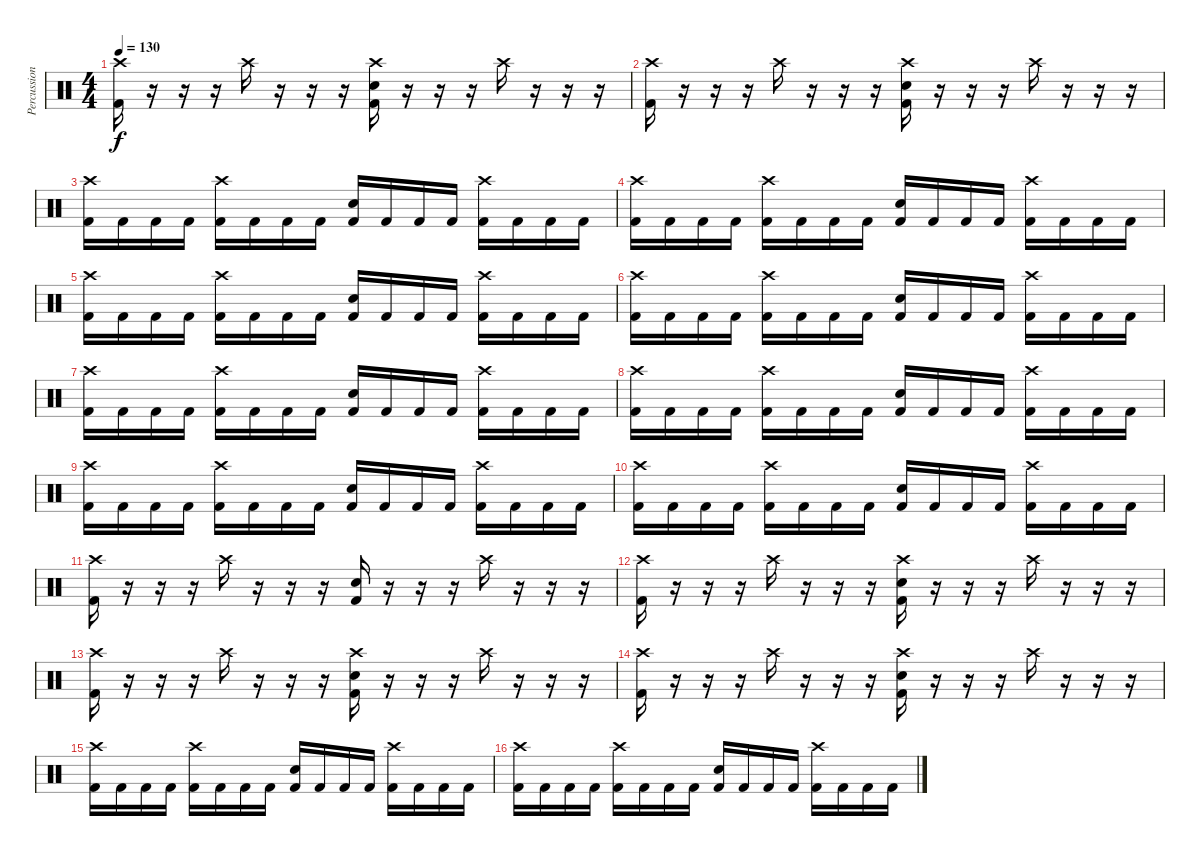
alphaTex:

\track ("Percussion" "Percussion") {instrument percussion}
\staff {score}
\articulation defaults
\ts (4 4)
\tempo 130
\clef neutral
\ks c
("Crash high (hit)" "Kick (hit) 2").16{dy f} r.16 r.16 r.16 "Crash high (hit)".16 r.16 r.16 r.16 ("Crash high (hit)" "Electric Snare (hit)" "Kick (hit) 2").16 r.16 r.16 r.16 "Crash high (hit)".16 r.16 r.16 r.16 |
("Crash high (hit)" "Kick (hit) 2").16 r.16 r.16 r.16 "Crash high (hit)".16 r.16 r.16 r.16 ("Crash high (hit)" "Electric Snare (hit)" "Kick (hit) 2").16 r.16 r.16 r.16 "Crash high (hit)".16 r.16 r.16 r.16 |
("Crash high (hit)" "Kick (hit) 2").16 "Kick (hit) 2".16 "Kick (hit) 2".16 "Kick (hit) 2".16 ("Crash high (hit)" "Kick (hit) 2").16 "Kick (hit) 2".16 "Kick (hit) 2".16 "Kick (hit) 2".16 ("Electric Snare (hit)" "Kick (hit) 2").16 "Kick (hit) 2".16 "Kick (hit) 2".16 "Kick (hit) 2".16 ("Crash high (hit)" "Kick (hit) 2").16 "Kick (hit) 2".16 "Kick (hit) 2".16 "Kick (hit) 2".16 |
("Crash high (hit)" "Kick (hit) 2").16 "Kick (hit) 2".16 "Kick (hit) 2".16 "Kick (hit) 2".16 ("Crash high (hit)" "Kick (hit) 2").16 "Kick (hit) 2".16 "Kick (hit) 2".16 "Kick (hit) 2".16 ("Electric Snare (hit)" "Kick (hit) 2").16 "Kick (hit) 2".16 "Kick (hit) 2".16 "Kick (hit) 2".16 ("Crash high (hit)" "Kick (hit) 2").16 "Kick (hit) 2".16 "Kick (hit) 2".16 "Kick (hit) 2".16 |
("Crash high (hit)" "Kick (hit) 2").16 "Kick (hit) 2".16 "Kick (hit) 2".16 "Kick (hit) 2".16 ("Crash high (hit)" "Kick (hit) 2").16 "Kick (hit) 2".16 "Kick (hit) 2".16 "Kick (hit) 2".16 ("Electric Snare (hit)" "Kick (hit) 2").16 "Kick (hit) 2".16 "Kick (hit) 2".16 "Kick (hit) 2".16 ("Crash high (hit)" "Kick (hit) 2").16 "Kick (hit) 2".16 "Kick (hit) 2".16 "Kick (hit) 2".16 |
("Crash high (hit)" "Kick (hit) 2").16 "Kick (hit) 2".16 "Kick (hit) 2".16 "Kick (hit) 2".16 ("Crash high (hit)" "Kick (hit) 2").16 "Kick (hit) 2".16 "Kick (hit) 2".16 "Kick (hit) 2".16 ("Electric Snare (hit)" "Kick (hit) 2").16 "Kick (hit) 2".16 "Kick (hit) 2".16 "Kick (hit) 2".16 ("Crash high (hit)" "Kick (hit) 2").16 "Kick (hit) 2".16 "Kick (hit) 2".16 "Kick (hit) 2".16 |
("Crash high (hit)" "Kick (hit) 2").16 "Kick (hit) 2".16 "Kick (hit) 2".16 "Kick (hit) 2".16 ("Crash high (hit)" "Kick (hit) 2").16 "Kick (hit) 2".16 "Kick (hit) 2".16 "Kick (hit) 2".16 ("Electric Snare (hit)" "Kick (hit) 2").16 "Kick (hit) 2".16 "Kick (hit) 2".16 "Kick (hit) 2".16 ("Crash high (hit)" "Kick (hit) 2").16 "Kick (hit) 2".16 "Kick (hit) 2".16 "Kick (hit) 2".16 |
("Crash high (hit)" "Kick (hit) 2").16 "Kick (hit) 2".16 "Kick (hit) 2".16 "Kick (hit) 2".16 ("Crash high (hit)" "Kick (hit) 2").16 "Kick (hit) 2".16 "Kick (hit) 2".16 "Kick (hit) 2".16 ("Electric Snare (hit)" "Kick (hit) 2").16 "Kick (hit) 2".16 "Kick (hit) 2".16 "Kick (hit) 2".16 ("Crash high (hit)" "Kick (hit) 2").16 "Kick (hit) 2".16 "Kick (hit) 2".16 "Kick (hit) 2".16 |
("Crash high (hit)" "Kick (hit) 2").16 "Kick (hit) 2".16 "Kick (hit) 2".16 "Kick (hit) 2".16 ("Crash high (hit)" "Kick (hit) 2").16 "Kick (hit) 2".16 "Kick (hit) 2".16 "Kick (hit) 2".16 ("Electric Snare (hit)" "Kick (hit) 2").16 "Kick (hit) 2".16 "Kick (hit) 2".16 "Kick (hit) 2".16 ("Crash high (hit)" "Kick (hit) 2").16 "Kick (hit) 2".16 "Kick (hit) 2".16 "Kick (hit) 2".16 |
("Crash high (hit)" "Kick (hit) 2").16 "Kick (hit) 2".16 "Kick (hit) 2".16 "Kick (hit) 2".16 ("Crash high (hit)" "Kick (hit) 2").16 "Kick (hit) 2".16 "Kick (hit) 2".16 "Kick (hit) 2".16 ("Electric Snare (hit)" "Kick (hit) 2").16 "Kick (hit) 2".16 "Kick (hit) 2".16 "Kick (hit) 2".16 ("Crash high (hit)" "Kick (hit) 2").16 "Kick (hit) 2".16 "Kick (hit) 2".16 "Kick (hit) 2".16 |
("Crash high (hit)" "Kick (hit) 2").16 r.16 r.16 r.16 "Crash high (hit)".16 r.16 r.16 r.16 ("Electric Snare (hit)" "Kick (hit) 2").16 r.16 r.16 r.16 "Crash high (hit)".16 r.16 r.16 r.16 |
("Crash high (hit)" "Kick (hit) 2").16 r.16 r.16 r.16 "Crash high (hit)".16 r.16 r.16 r.16 ("Crash high (hit)" "Electric Snare (hit)" "Kick (hit) 2").16 r.16 r.16 r.16 "Crash high (hit)".16 r.16 r.16 r.16 |
("Crash high (hit)" "Kick (hit) 2").16 r.16 r.16 r.16 "Crash high (hit)".16 r.16 r.16 r.16 ("Crash high (hit)" "Electric Snare (hit)" "Kick (hit) 2").16 r.16 r.16 r.16 "Crash high (hit)".16 r.16 r.16 r.16 |
("Crash high (hit)" "Kick (hit) 2").16 r.16 r.16 r.16 "Crash high (hit)".16 r.16 r.16 r.16 ("Crash high (hit)" "Electric Snare (hit)" "Kick (hit) 2").16 r.16 r.16 r.16 "Crash high (hit)".16 r.16 r.16 r.16 |
("Crash high (hit)" "Kick (hit) 2").16 "Kick (hit) 2".16 "Kick (hit) 2".16 "Kick (hit) 2".16 ("Crash high (hit)" "Kick (hit) 2").16 "Kick (hit) 2".16 "Kick (hit) 2".16 "Kick (hit) 2".16 ("Electric Snare (hit)" "Kick (hit) 2").16 "Kick (hit) 2".16 "Kick (hit) 2".16 "Kick (hit) 2".16 ("Crash high (hit)" "Kick (hit) 2").16 "Kick (hit) 2".16 "Kick (hit) 2".16 "Kick (hit) 2".16 |
("Crash high (hit)" "Kick (hit) 2").16 "Kick (hit) 2".16 "Kick (hit) 2".16 "Kick (hit) 2".16 ("Crash high (hit)" "Kick (hit) 2").16 "Kick (hit) 2".16 "Kick (hit) 2".16 "Kick (hit) 2".16 ("Electric Snare (hit)" "Kick (hit) 2").16 "Kick (hit) 2".16 "Kick (hit) 2".16 "Kick (hit) 2".16 ("Crash high (hit)" "Kick (hit) 2").16 "Kick (hit) 2".16 "Kick (hit) 2".16 "Kick (hit) 2".16
